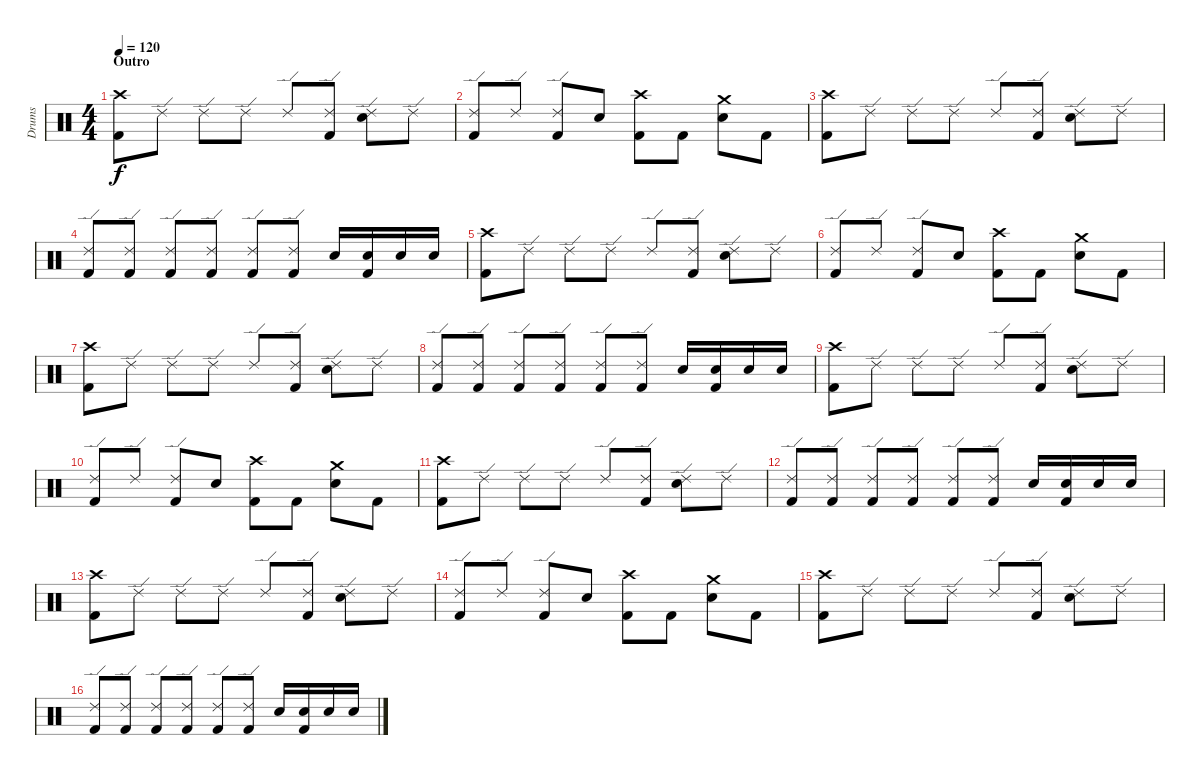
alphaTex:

\track ("Drums" "Drums") {instrument percussion}
\staff {score}
\articulation defaults
\ts (4 4)
\section ("" "Outro")
\tempo 120
\clef neutral
\ks c
("Crash high (hit)" "Kick (hit) 2").8{dy f} "Ride (edge) 2".8 "Ride (edge) 2".8 "Ride (edge) 2".8 "Ride (edge) 2".8 ("Ride (edge) 2" "Kick (hit) 2").8 ("Ride (edge) 2" "Snare (hit) 2").8 "Ride (edge) 2".8 |
("Ride (edge) 2" "Kick (hit) 2").8 "Ride (edge) 2".8 ("Ride (edge) 2" "Kick (hit) 2").8 "Snare (hit) 2".8 ("Crash high (hit)" "Kick (hit) 2").8 "Kick (hit) 2".8 ("Crash medium (hit)" "Snare (hit) 2").8 "Kick (hit) 2".8 |
("Crash high (hit)" "Kick (hit) 2").8 "Ride (edge) 2".8 "Ride (edge) 2".8 "Ride (edge) 2".8 "Ride (edge) 2".8 ("Ride (edge) 2" "Kick (hit) 2").8 ("Ride (edge) 2" "Snare (hit) 2").8 "Ride (edge) 2".8 |
("Ride (edge) 2" "Kick (hit) 2").8 ("Ride (edge) 2" "Kick (hit) 2").8 ("Ride (edge) 2" "Kick (hit) 2").8 ("Ride (edge) 2" "Kick (hit) 2").8 ("Ride (edge) 2" "Kick (hit) 2").8 ("Ride (edge) 2" "Kick (hit) 2").8 "Snare (hit) 2".16 ("Snare (hit) 2" "Kick (hit) 2").16 "Snare (hit) 2".16 "Snare (hit) 2".16 |
("Crash high (hit)" "Kick (hit) 2").8 "Ride (edge) 2".8 "Ride (edge) 2".8 "Ride (edge) 2".8 "Ride (edge) 2".8 ("Ride (edge) 2" "Kick (hit) 2").8 ("Ride (edge) 2" "Snare (hit) 2").8 "Ride (edge) 2".8 |
("Ride (edge) 2" "Kick (hit) 2").8 "Ride (edge) 2".8 ("Ride (edge) 2" "Kick (hit) 2").8 "Snare (hit) 2".8 ("Crash high (hit)" "Kick (hit) 2").8 "Kick (hit) 2".8 ("Crash medium (hit)" "Snare (hit) 2").8 "Kick (hit) 2".8 |
("Crash high (hit)" "Kick (hit) 2").8 "Ride (edge) 2".8 "Ride (edge) 2".8 "Ride (edge) 2".8 "Ride (edge) 2".8 ("Ride (edge) 2" "Kick (hit) 2").8 ("Ride (edge) 2" "Snare (hit) 2").8 "Ride (edge) 2".8 |
("Ride (edge) 2" "Kick (hit) 2").8 ("Ride (edge) 2" "Kick (hit) 2").8 ("Ride (edge) 2" "Kick (hit) 2").8 ("Ride (edge) 2" "Kick (hit) 2").8 ("Ride (edge) 2" "Kick (hit) 2").8 ("Ride (edge) 2" "Kick (hit) 2").8 "Snare (hit) 2".16 ("Snare (hit) 2" "Kick (hit) 2").16 "Snare (hit) 2".16 "Snare (hit) 2".16 |
("Crash high (hit)" "Kick (hit) 2").8 "Ride (edge) 2".8 "Ride (edge) 2".8 "Ride (edge) 2".8 "Ride (edge) 2".8 ("Ride (edge) 2" "Kick (hit) 2").8 ("Ride (edge) 2" "Snare (hit) 2").8 "Ride (edge) 2".8 |
("Ride (edge) 2" "Kick (hit) 2").8 "Ride (edge) 2".8 ("Ride (edge) 2" "Kick (hit) 2").8 "Snare (hit) 2".8 ("Crash high (hit)" "Kick (hit) 2").8 "Kick (hit) 2".8 ("Crash medium (hit)" "Snare (hit) 2").8 "Kick (hit) 2".8 |
("Crash high (hit)" "Kick (hit) 2").8 "Ride (edge) 2".8 "Ride (edge) 2".8 "Ride (edge) 2".8 "Ride (edge) 2".8 ("Ride (edge) 2" "Kick (hit) 2").8 ("Ride (edge) 2" "Snare (hit) 2").8 "Ride (edge) 2".8 |
("Ride (edge) 2" "Kick (hit) 2").8 ("Ride (edge) 2" "Kick (hit) 2").8 ("Ride (edge) 2" "Kick (hit) 2").8 ("Ride (edge) 2" "Kick (hit) 2").8 ("Ride (edge) 2" "Kick (hit) 2").8 ("Ride (edge) 2" "Kick (hit) 2").8 "Snare (hit) 2".16 ("Snare (hit) 2" "Kick (hit) 2").16 "Snare (hit) 2".16 "Snare (hit) 2".16 |
("Crash high (hit)" "Kick (hit) 2").8 "Ride (edge) 2".8 "Ride (edge) 2".8 "Ride (edge) 2".8 "Ride (edge) 2".8 ("Ride (edge) 2" "Kick (hit) 2").8 ("Ride (edge) 2" "Snare (hit) 2").8 "Ride (edge) 2".8 |
("Ride (edge) 2" "Kick (hit) 2").8 "Ride (edge) 2".8 ("Ride (edge) 2" "Kick (hit) 2").8 "Snare (hit) 2".8 ("Crash high (hit)" "Kick (hit) 2").8 "Kick (hit) 2".8 ("Crash medium (hit)" "Snare (hit) 2").8 "Kick (hit) 2".8 |
("Crash high (hit)" "Kick (hit) 2").8 "Ride (edge) 2".8 "Ride (edge) 2".8 "Ride (edge) 2".8 "Ride (edge) 2".8 ("Ride (edge) 2" "Kick (hit) 2").8 ("Ride (edge) 2" "Snare (hit) 2").8 "Ride (edge) 2".8 |
("Ride (edge) 2" "Kick (hit) 2").8 ("Ride (edge) 2" "Kick (hit) 2").8 ("Ride (edge) 2" "Kick (hit) 2").8 ("Ride (edge) 2" "Kick (hit) 2").8 ("Ride (edge) 2" "Kick (hit) 2").8 ("Ride (edge) 2" "Kick (hit) 2").8 "Snare (hit) 2".16 ("Snare (hit) 2" "Kick (hit) 2").16 "Snare (hit) 2".16 "Snare (hit) 2".16
